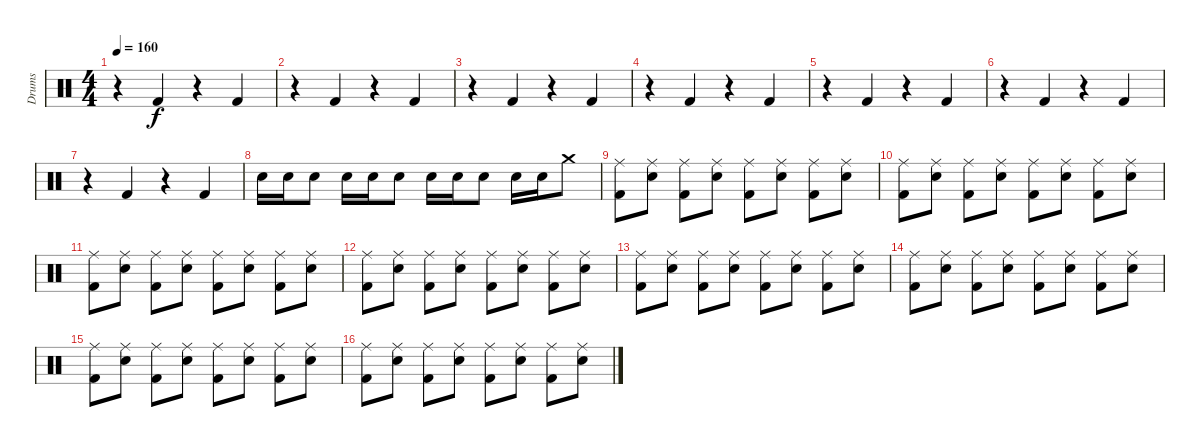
\track ("Drums" "Drums") {instrument percussion}
\staff {score}
\articulation defaults
\ts (4 4)
\tempo 160
\clef neutral
\ks c
r.4{dy f} "Kick (hit) 2".4 r.4 "Kick (hit) 2".4 |
r.4 "Kick (hit) 2".4 r.4 "Kick (hit) 2".4 |
r.4 "Kick (hit) 2".4 r.4 "Kick (hit) 2".4 |
r.4 "Kick (hit) 2".4 r.4 "Kick (hit) 2".4 |
r.4 "Kick (hit) 2".4 r.4 "Kick (hit) 2".4 |
r.4 "Kick (hit) 2".4 r.4 "Kick (hit) 2".4 |
r.4 "Kick (hit) 2".4 r.4 "Kick (hit) 2".4 |
"Electric Snare (hit)".16 "Electric Snare (hit)".16 "Electric Snare (hit)".8 "Electric Snare (hit)".16 "Electric Snare (hit)".16 "Electric Snare (hit)".8 "Electric Snare (hit)".16 "Electric Snare (hit)".16 "Electric Snare (hit)".8 "Electric Snare (hit)".16 "Electric Snare (hit)".16 "Crash medium (hit)".8 |
("Ride (middle)" "Kick (hit) 2").8 ("Ride (middle)" "Electric Snare (hit)").8 ("Ride (middle)" "Kick (hit) 2").8 ("Ride (middle)" "Electric Snare (hit)").8 ("Ride (middle)" "Kick (hit) 2").8 ("Ride (middle)" "Electric Snare (hit)").8 ("Ride (middle)" "Kick (hit) 2").8 ("Ride (middle)" "Electric Snare (hit)").8 |
("Ride (middle)" "Kick (hit) 2").8 ("Ride (middle)" "Electric Snare (hit)").8 ("Ride (middle)" "Kick (hit) 2").8 ("Ride (middle)" "Electric Snare (hit)").8 ("Ride (middle)" "Kick (hit) 2").8 ("Ride (middle)" "Electric Snare (hit)").8 ("Ride (middle)" "Kick (hit) 2").8 ("Ride (middle)" "Electric Snare (hit)").8 |
("Ride (middle)" "Kick (hit) 2").8 ("Ride (middle)" "Electric Snare (hit)").8 ("Ride (middle)" "Kick (hit) 2").8 ("Ride (middle)" "Electric Snare (hit)").8 ("Ride (middle)" "Kick (hit) 2").8 ("Ride (middle)" "Electric Snare (hit)").8 ("Ride (middle)" "Kick (hit) 2").8 ("Ride (middle)" "Electric Snare (hit)").8 |
("Ride (middle)" "Kick (hit) 2").8 ("Ride (middle)" "Electric Snare (hit)").8 ("Ride (middle)" "Kick (hit) 2").8 ("Ride (middle)" "Electric Snare (hit)").8 ("Ride (middle)" "Kick (hit) 2").8 ("Ride (middle)" "Electric Snare (hit)").8 ("Ride (middle)" "Kick (hit) 2").8 ("Ride (middle)" "Electric Snare (hit)").8 |
("Ride (middle)" "Kick (hit) 2").8 ("Ride (middle)" "Electric Snare (hit)").8 ("Ride (middle)" "Kick (hit) 2").8 ("Ride (middle)" "Electric Snare (hit)").8 ("Ride (middle)" "Kick (hit) 2").8 ("Ride (middle)" "Electric Snare (hit)").8 ("Ride (middle)" "Kick (hit) 2").8 ("Ride (middle)" "Electric Snare (hit)").8 |
("Ride (middle)" "Kick (hit) 2").8 ("Ride (middle)" "Electric Snare (hit)").8 ("Ride (middle)" "Kick (hit) 2").8 ("Ride (middle)" "Electric Snare (hit)").8 ("Ride (middle)" "Kick (hit) 2").8 ("Ride (middle)" "Electric Snare (hit)").8 ("Ride (middle)" "Kick (hit) 2").8 ("Ride (middle)" "Electric Snare (hit)").8 |
("Ride (middle)" "Kick (hit) 2").8 ("Ride (middle)" "Electric Snare (hit)").8 ("Ride (middle)" "Kick (hit) 2").8 ("Ride (middle)" "Electric Snare (hit)").8 ("Ride (middle)" "Kick (hit) 2").8 ("Ride (middle)" "Electric Snare (hit)").8 ("Ride (middle)" "Kick (hit) 2").8 ("Ride (middle)" "Electric Snare (hit)").8 |
("Ride (middle)" "Kick (hit) 2").8 ("Ride (middle)" "Electric Snare (hit)").8 ("Ride (middle)" "Kick (hit) 2").8 ("Ride (middle)" "Electric Snare (hit)").8 ("Ride (middle)" "Kick (hit) 2").8 ("Ride (middle)" "Electric Snare (hit)").8 ("Ride (middle)" "Kick (hit) 2").8 ("Ride (middle)" "Electric Snare (hit)").8
